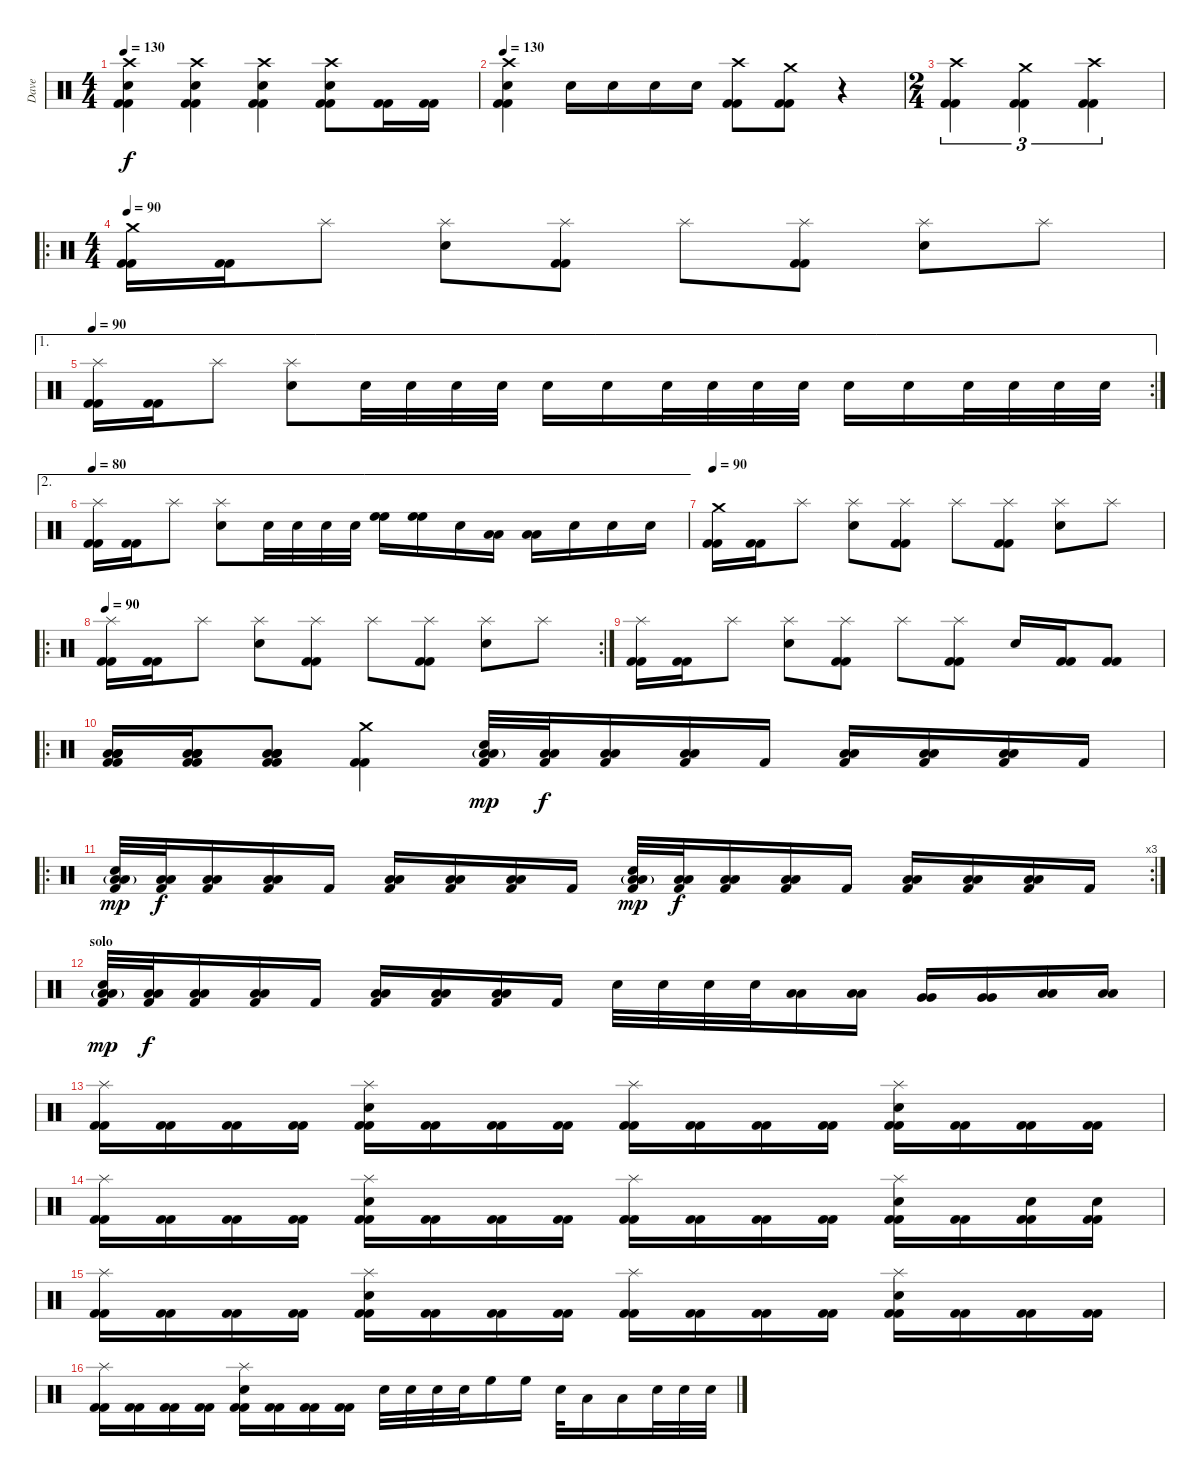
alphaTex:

\track ("Dave" "Dave") {instrument percussion}
\staff {score}
\articulation defaults
\ts (4 4)
\tempo 130
\clef neutral
\ks c
("Crash high (hit)" "Electric Snare (hit)" "Kick (hit) 2" "Kick (hit) 2").4{dy f} ("Crash high (hit)" "Electric Snare (hit)" "Kick (hit) 2" "Kick (hit) 2").4 ("Crash high (hit)" "Electric Snare (hit)" "Kick (hit) 2" "Kick (hit) 2").4 ("Crash high (hit)" "Electric Snare (hit)" "Kick (hit) 2" "Kick (hit) 2").8 ("Kick (hit) 2" "Kick (hit) 2").16 ("Kick (hit) 2" "Kick (hit) 2").16 |
\tempo 130
("Crash high (hit)" "Electric Snare (hit)" "Kick (hit) 2" "Kick (hit) 2").4 "Electric Snare (hit)".16 "Electric Snare (hit)".16 "Electric Snare (hit)".16 "Electric Snare (hit)".16 ("Crash high (hit)" "Kick (hit) 2" "Kick (hit) 2").8 ("Crash medium (hit)" "Kick (hit) 2" "Kick (hit) 2").8 r.4 |
\ts (2 4)
("Crash high (hit)" "Kick (hit) 2" "Kick (hit) 2").4{tu (3 2)} ("Crash medium (hit)" "Kick (hit) 2" "Kick (hit) 2").4{tu (3 2)} ("Crash high (hit)" "Kick (hit) 2" "Kick (hit) 2").4{tu (3 2)} |
\ro
\ts (4 4)
\tempo 80
\tempo 90
("Crash medium (hit)" "Kick (hit) 2" "Kick (hit) 2").16 ("Kick (hit) 2" "Kick (hit) 2").16 "Splash (hit)".8 ("Splash (hit)" "Electric Snare (hit)").8 ("Splash (hit)" "Kick (hit) 2" "Kick (hit) 2").8 "Splash (hit)".8 ("Splash (hit)" "Kick (hit) 2" "Kick (hit) 2").8 ("Splash (hit)" "Electric Snare (hit)").8 "Splash (hit)".8 |
\ae 1
\rc 2
\tempo 80
\tempo 90
("Splash (hit)" "Kick (hit) 2" "Kick (hit) 2").16 ("Kick (hit) 2" "Kick (hit) 2").16 "Splash (hit)".8 ("Splash (hit)" "Electric Snare (hit)").8 "Electric Snare (hit)".32 "Electric Snare (hit)".32 "Electric Snare (hit)".32 "Electric Snare (hit)".32 "Electric Snare (hit)".16 "Electric Snare (hit)".16 "Electric Snare (hit)".32 "Electric Snare (hit)".32 "Electric Snare (hit)".32 "Electric Snare (hit)".32 "Electric Snare (hit)".16 "Electric Snare (hit)".16 "Electric Snare (hit)".32 "Electric Snare (hit)".32 "Electric Snare (hit)".32 "Electric Snare (hit)".32 |
\ae 2
\tempo 80
("Splash (hit)" "Kick (hit) 2" "Kick (hit) 2").16 ("Kick (hit) 2" "Kick (hit) 2").16 "Splash (hit)".8 ("Splash (hit)" "Electric Snare (hit)").8 "Electric Snare (hit)".32 "Electric Snare (hit)".32 "Electric Snare (hit)".32 "Electric Snare (hit)".32 ("High Floor Tom (hit)" "High Floor Tom (hit)").16 ("High Floor Tom (hit)" "High Floor Tom (hit)").16 "Electric Snare (hit)".16 ("Low Tom (hit)" "Low Tom (hit)").16 ("Low Tom (hit)" "Low Tom (hit)").16 "Electric Snare (hit)".16 "Electric Snare (hit)".16 "Electric Snare (hit)".16 |
\tempo 80
\tempo 90
("Crash medium (hit)" "Kick (hit) 2" "Kick (hit) 2").16 ("Kick (hit) 2" "Kick (hit) 2").16 "Splash (hit)".8 ("Splash (hit)" "Electric Snare (hit)").8 ("Splash (hit)" "Kick (hit) 2" "Kick (hit) 2").8 "Splash (hit)".8 ("Splash (hit)" "Kick (hit) 2" "Kick (hit) 2").8 ("Splash (hit)" "Electric Snare (hit)").8 "Splash (hit)".8 |
\ro
\rc 2
\tempo 80
\tempo 90
("Splash (hit)" "Kick (hit) 2" "Kick (hit) 2").16 ("Kick (hit) 2" "Kick (hit) 2").16 "Splash (hit)".8 ("Splash (hit)" "Electric Snare (hit)").8 ("Splash (hit)" "Kick (hit) 2" "Kick (hit) 2").8 "Splash (hit)".8 ("Splash (hit)" "Kick (hit) 2" "Kick (hit) 2").8 ("Splash (hit)" "Electric Snare (hit)").8 "Splash (hit)".8 |
("Splash (hit)" "Kick (hit) 2" "Kick (hit) 2").16 ("Kick (hit) 2" "Kick (hit) 2").16 "Splash (hit)".8 ("Splash (hit)" "Electric Snare (hit)").8 ("Splash (hit)" "Kick (hit) 2" "Kick (hit) 2").8 "Splash (hit)".8 ("Splash (hit)" "Kick (hit) 2" "Kick (hit) 2").8 "Electric Snare (hit)".16 ("Kick (hit) 2" "Kick (hit) 2").16 ("Kick (hit) 2" "Kick (hit) 2").8 |
\ro
("Low Tom (hit)" "Low Tom (hit)" "Low Floor Tom (hit)" "Low Floor Tom (hit)" "Kick (hit) 2" "Kick (hit) 2").16 ("Low Tom (hit)" "Low Tom (hit)" "Low Floor Tom (hit)" "Low Floor Tom (hit)" "Kick (hit) 2" "Kick (hit) 2").16 ("Low Tom (hit)" "Low Tom (hit)" "Low Floor Tom (hit)" "Low Floor Tom (hit)" "Kick (hit) 2" "Kick (hit) 2").8 ("Crash medium (hit)" "Kick (hit) 2" "Kick (hit) 2").4 ("Electric Snare (hit)" "Low Floor Tom (hit)"{g} "Low Floor Tom (hit)"{g} "Kick (hit) 2").32{dy mp} ("Low Floor Tom (hit)" "Low Floor Tom (hit)" "Kick (hit) 2").32{dy f} ("Low Floor Tom (hit)" "Low Floor Tom (hit)" "Kick (hit) 2").16 ("Low Floor Tom (hit)" "Low Floor Tom (hit)" "Kick (hit) 2").16 "Kick (hit) 2".16 ("Low Tom (hit)" "Low Tom (hit)" "Kick (hit) 2").16 ("Low Tom (hit)" "Low Tom (hit)" "Kick (hit) 2").16 ("Low Tom (hit)" "Low Tom (hit)" "Kick (hit) 2").16 "Kick (hit) 2".16 |
\ro
\rc 3
("Electric Snare (hit)" "Low Floor Tom (hit)"{g} "Low Floor Tom (hit)"{g} "Kick (hit) 2").32{dy mp} ("Low Floor Tom (hit)" "Low Floor Tom (hit)" "Kick (hit) 2").32{dy f} ("Low Floor Tom (hit)" "Low Floor Tom (hit)" "Kick (hit) 2").16 ("Low Floor Tom (hit)" "Low Floor Tom (hit)" "Kick (hit) 2").16 "Kick (hit) 2".16 ("Low Tom (hit)" "Low Tom (hit)" "Kick (hit) 2").16 ("Low Tom (hit)" "Low Tom (hit)" "Kick (hit) 2").16 ("Low Tom (hit)" "Low Tom (hit)" "Kick (hit) 2").16 "Kick (hit) 2".16 ("Electric Snare (hit)" "Low Floor Tom (hit)"{g} "Low Floor Tom (hit)"{g} "Kick (hit) 2").32{dy mp} ("Low Floor Tom (hit)" "Low Floor Tom (hit)" "Kick (hit) 2").32{dy f} ("Low Floor Tom (hit)" "Low Floor Tom (hit)" "Kick (hit) 2").16 ("Low Floor Tom (hit)" "Low Floor Tom (hit)" "Kick (hit) 2").16 "Kick (hit) 2".16 ("Low Tom (hit)" "Low Tom (hit)" "Kick (hit) 2").16 ("Low Tom (hit)" "Low Tom (hit)" "Kick (hit) 2").16 ("Low Tom (hit)" "Low Tom (hit)" "Kick (hit) 2").16 "Kick (hit) 2".16 |
\section ("" "solo")
("Electric Snare (hit)" "Low Floor Tom (hit)"{g} "Low Floor Tom (hit)"{g} "Kick (hit) 2").32{dy mp} ("Low Floor Tom (hit)" "Low Floor Tom (hit)" "Kick (hit) 2").32{dy f} ("Low Floor Tom (hit)" "Low Floor Tom (hit)" "Kick (hit) 2").16 ("Low Floor Tom (hit)" "Low Floor Tom (hit)" "Kick (hit) 2").16 "Kick (hit) 2".16 ("Low Tom (hit)" "Low Tom (hit)" "Kick (hit) 2").16 ("Low Tom (hit)" "Low Tom (hit)" "Kick (hit) 2").16 ("Low Tom (hit)" "Low Tom (hit)" "Kick (hit) 2").16 "Kick (hit) 2".16 "Electric Snare (hit)".32 "Electric Snare (hit)".32 "Electric Snare (hit)".32 "Electric Snare (hit)".32 ("Low Tom (hit)" "Low Tom (hit)").16 ("Low Tom (hit)" "Low Tom (hit)").16 ("Very Low Tom (hit)" "Very Low Tom (hit)").16 ("Very Low Tom (hit)" "Very Low Tom (hit)").16 ("Low Floor Tom (hit)" "Low Floor Tom (hit)").16 ("Low Floor Tom (hit)" "Low Floor Tom (hit)").16 |
("Splash (hit)" "Kick (hit) 2" "Kick (hit) 2").16 ("Kick (hit) 2" "Kick (hit) 2").16 ("Kick (hit) 2" "Kick (hit) 2").16 ("Kick (hit) 2" "Kick (hit) 2").16 ("Splash (hit)" "Electric Snare (hit)" "Kick (hit) 2" "Kick (hit) 2").16 ("Kick (hit) 2" "Kick (hit) 2").16 ("Kick (hit) 2" "Kick (hit) 2").16 ("Kick (hit) 2" "Kick (hit) 2").16 ("Splash (hit)" "Kick (hit) 2" "Kick (hit) 2").16 ("Kick (hit) 2" "Kick (hit) 2").16 ("Kick (hit) 2" "Kick (hit) 2").16 ("Kick (hit) 2" "Kick (hit) 2").16 ("Splash (hit)" "Electric Snare (hit)" "Kick (hit) 2" "Kick (hit) 2").16 ("Kick (hit) 2" "Kick (hit) 2").16 ("Kick (hit) 2" "Kick (hit) 2").16 ("Kick (hit) 2" "Kick (hit) 2").16 |
("Splash (hit)" "Kick (hit) 2" "Kick (hit) 2").16 ("Kick (hit) 2" "Kick (hit) 2").16 ("Kick (hit) 2" "Kick (hit) 2").16 ("Kick (hit) 2" "Kick (hit) 2").16 ("Splash (hit)" "Electric Snare (hit)" "Kick (hit) 2" "Kick (hit) 2").16 ("Kick (hit) 2" "Kick (hit) 2").16 ("Kick (hit) 2" "Kick (hit) 2").16 ("Kick (hit) 2" "Kick (hit) 2").16 ("Splash (hit)" "Kick (hit) 2" "Kick (hit) 2").16 ("Kick (hit) 2" "Kick (hit) 2").16 ("Kick (hit) 2" "Kick (hit) 2").16 ("Kick (hit) 2" "Kick (hit) 2").16 ("Splash (hit)" "Electric Snare (hit)" "Kick (hit) 2" "Kick (hit) 2").16 ("Kick (hit) 2" "Kick (hit) 2").16 ("Electric Snare (hit)" "Kick (hit) 2" "Kick (hit) 2").16 ("Electric Snare (hit)" "Kick (hit) 2" "Kick (hit) 2").16 |
("Splash (hit)" "Kick (hit) 2" "Kick (hit) 2").16 ("Kick (hit) 2" "Kick (hit) 2").16 ("Kick (hit) 2" "Kick (hit) 2").16 ("Kick (hit) 2" "Kick (hit) 2").16 ("Splash (hit)" "Electric Snare (hit)" "Kick (hit) 2" "Kick (hit) 2").16 ("Kick (hit) 2" "Kick (hit) 2").16 ("Kick (hit) 2" "Kick (hit) 2").16 ("Kick (hit) 2" "Kick (hit) 2").16 ("Splash (hit)" "Kick (hit) 2" "Kick (hit) 2").16 ("Kick (hit) 2" "Kick (hit) 2").16 ("Kick (hit) 2" "Kick (hit) 2").16 ("Kick (hit) 2" "Kick (hit) 2").16 ("Splash (hit)" "Electric Snare (hit)" "Kick (hit) 2" "Kick (hit) 2").16 ("Kick (hit) 2" "Kick (hit) 2").16 ("Kick (hit) 2" "Kick (hit) 2").16 ("Kick (hit) 2" "Kick (hit) 2").16 |
("Splash (hit)" "Kick (hit) 2" "Kick (hit) 2").16 ("Kick (hit) 2" "Kick (hit) 2").16 ("Kick (hit) 2" "Kick (hit) 2").16 ("Kick (hit) 2" "Kick (hit) 2").16 ("Splash (hit)" "Electric Snare (hit)" "Kick (hit) 2" "Kick (hit) 2").16 ("Kick (hit) 2" "Kick (hit) 2").16 ("Kick (hit) 2" "Kick (hit) 2").16 ("Kick (hit) 2" "Kick (hit) 2").16 "Electric Snare (hit)".32 "Electric Snare (hit)".32 "Electric Snare (hit)".32 "Electric Snare (hit)".32 "High Floor Tom (hit)".16 "High Floor Tom (hit)".16 "Electric Snare (hit)".32 "Low Tom (hit)".16 "Low Tom (hit)".16 "Electric Snare (hit)".32 "Electric Snare (hit)".32 "Electric Snare (hit)".32
